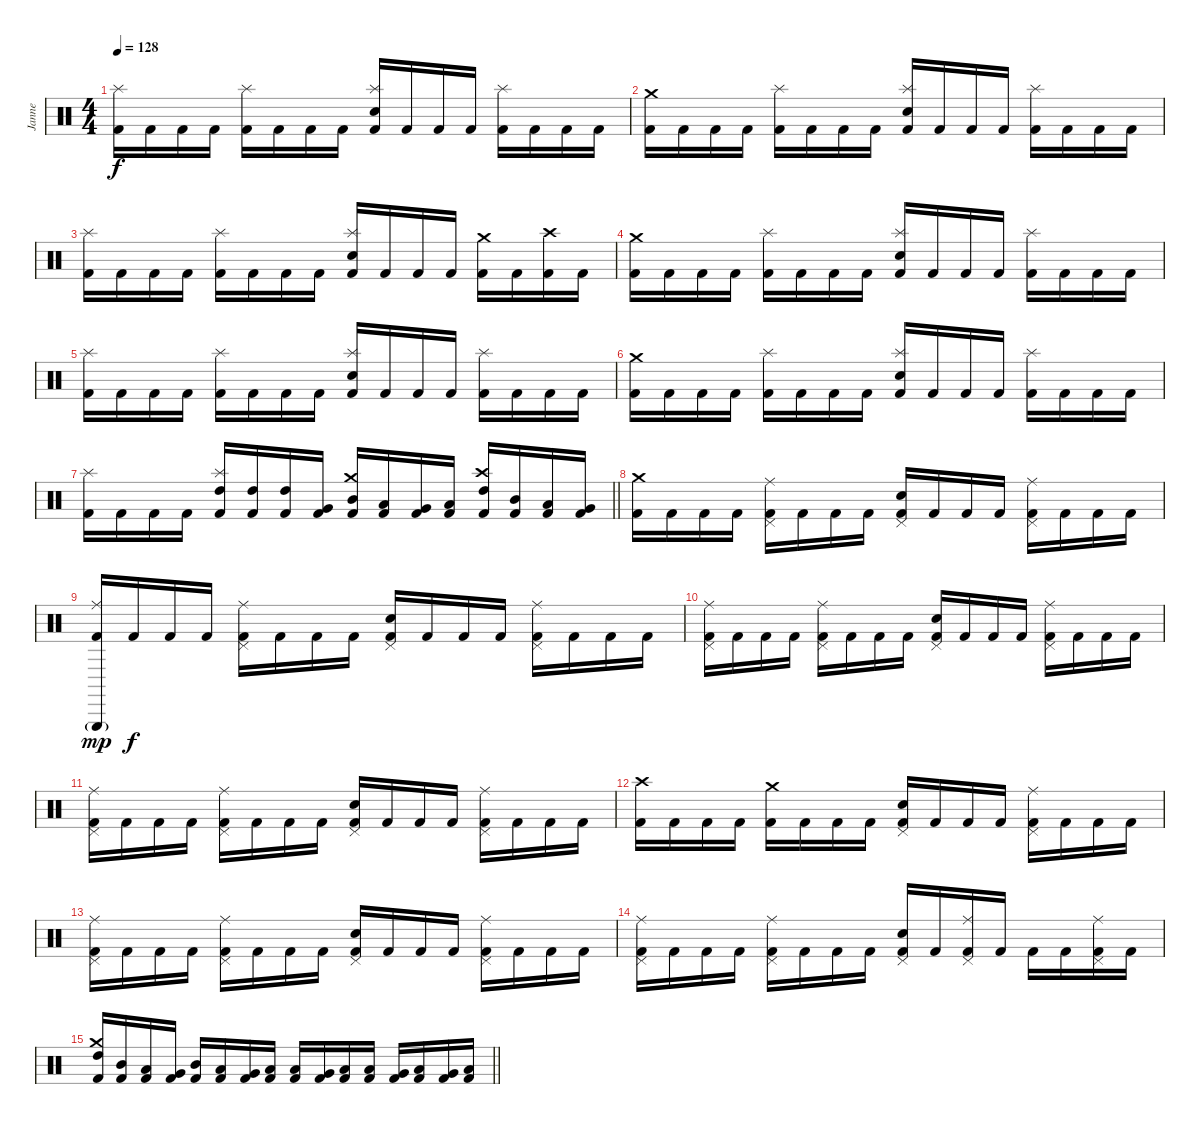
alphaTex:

\track ("Janne" "Janne") {instrument percussion}
\staff {score}
\articulation defaults
\ts (4 4)
\tempo 128
\clef neutral
\ks c
("Kick (hit) 2" "Splash (hit)").16{dy f} "Kick (hit) 2".16 "Kick (hit) 2".16 "Kick (hit) 2".16 ("Kick (hit) 2" "Splash (hit)").16 "Kick (hit) 2".16 "Kick (hit) 2".16 "Kick (hit) 2".16 ("Kick (hit) 2" "Snare (hit) 2" "Splash (hit)").16 "Kick (hit) 2".16 "Kick (hit) 2".16 "Kick (hit) 2".16 ("Kick (hit) 2" "Splash (hit)").16 "Kick (hit) 2".16 "Kick (hit) 2".16 "Kick (hit) 2".16 |
("Kick (hit) 2" "Crash medium (hit)").16 "Kick (hit) 2".16 "Kick (hit) 2".16 "Kick (hit) 2".16 ("Kick (hit) 2" "Splash (hit)").16 "Kick (hit) 2".16 "Kick (hit) 2".16 "Kick (hit) 2".16 ("Kick (hit) 2" "Snare (hit) 2" "Splash (hit)").16 "Kick (hit) 2".16 "Kick (hit) 2".16 "Kick (hit) 2".16 ("Kick (hit) 2" "Splash (hit)").16 "Kick (hit) 2".16 "Kick (hit) 2".16 "Kick (hit) 2".16 |
("Kick (hit) 2" "Splash (hit)").16 "Kick (hit) 2".16 "Kick (hit) 2".16 "Kick (hit) 2".16 ("Kick (hit) 2" "Splash (hit)").16 "Kick (hit) 2".16 "Kick (hit) 2".16 "Kick (hit) 2".16 ("Kick (hit) 2" "Snare (hit) 2" "Splash (hit)").16 "Kick (hit) 2".16 "Kick (hit) 2".16 "Kick (hit) 2".16 ("Kick (hit) 2" "Crash medium (hit)").16 "Kick (hit) 2".16 ("Kick (hit) 2" "Crash high (hit)").16 "Kick (hit) 2".16 |
("Kick (hit) 2" "Crash medium (hit)").16 "Kick (hit) 2".16 "Kick (hit) 2".16 "Kick (hit) 2".16 ("Kick (hit) 2" "Splash (hit)").16 "Kick (hit) 2".16 "Kick (hit) 2".16 "Kick (hit) 2".16 ("Kick (hit) 2" "Snare (hit) 2" "Splash (hit)").16 "Kick (hit) 2".16 "Kick (hit) 2".16 "Kick (hit) 2".16 ("Kick (hit) 2" "Splash (hit)").16 "Kick (hit) 2".16 "Kick (hit) 2".16 "Kick (hit) 2".16 |
("Kick (hit) 2" "Splash (hit)").16 "Kick (hit) 2".16 "Kick (hit) 2".16 "Kick (hit) 2".16 ("Kick (hit) 2" "Splash (hit)").16 "Kick (hit) 2".16 "Kick (hit) 2".16 "Kick (hit) 2".16 ("Kick (hit) 2" "Snare (hit) 2" "Splash (hit)").16 "Kick (hit) 2".16 "Kick (hit) 2".16 "Kick (hit) 2".16 ("Kick (hit) 2" "Splash (hit)").16 "Kick (hit) 2".16 "Kick (hit) 2".16 "Kick (hit) 2".16 |
("Kick (hit) 2" "Crash medium (hit)").16 "Kick (hit) 2".16 "Kick (hit) 2".16 "Kick (hit) 2".16 ("Kick (hit) 2" "Splash (hit)").16 "Kick (hit) 2".16 "Kick (hit) 2".16 "Kick (hit) 2".16 ("Kick (hit) 2" "Snare (hit) 2" "Splash (hit)").16 "Kick (hit) 2".16 "Kick (hit) 2".16 "Kick (hit) 2".16 ("Kick (hit) 2" "Splash (hit)").16 "Kick (hit) 2".16 "Kick (hit) 2".16 "Kick (hit) 2".16 |
\barLineRight lightlight
("Kick (hit) 2" "Splash (hit)").16 "Kick (hit) 2".16 "Kick (hit) 2".16 "Kick (hit) 2".16 ("Kick (hit) 2" "High Tom (hit)" "Splash (hit)").16 ("Kick (hit) 2" "High Tom (hit)").16 ("Kick (hit) 2" "High Tom (hit)").16 ("Kick (hit) 2" "Very Low Tom (hit)").16 ("Kick (hit) 2" "Mid Tom (hit)" "Crash medium (hit)").16 ("Kick (hit) 2" "Low Tom (hit)").16 ("Kick (hit) 2" "Very Low Tom (hit)").16 ("Kick (hit) 2" "Low Tom (hit)").16 ("Kick (hit) 2" "High Tom (hit)" "Crash high (hit)").16 ("Kick (hit) 2" "Mid Tom (hit)").16 ("Kick (hit) 2" "Low Tom (hit)").16 ("Kick (hit) 2" "Very Low Tom (hit)").16 |
("Kick (hit) 2" "Crash medium (hit)").16 "Kick (hit) 2".16 "Kick (hit) 2".16 "Kick (hit) 2".16 ("Kick (hit) 2" "Pedal Hi-Hat (hit)" "Ride (middle)").16 "Kick (hit) 2".16 "Kick (hit) 2".16 "Kick (hit) 2".16 ("Kick (hit) 2" "Snare (hit) 2" "Pedal Hi-Hat (hit)").16 "Kick (hit) 2".16 "Kick (hit) 2".16 "Kick (hit) 2".16 ("Kick (hit) 2" "Pedal Hi-Hat (hit)" "Ride (middle)").16 "Kick (hit) 2".16 "Kick (hit) 2".16 "Kick (hit) 2".16 |
("Kick (hit) 2" "Ride (middle)" "Triangle (hit)"{g}).16{dy mp} "Kick (hit) 2".16{dy f} "Kick (hit) 2".16 "Kick (hit) 2".16 ("Kick (hit) 2" "Pedal Hi-Hat (hit)" "Ride (middle)").16 "Kick (hit) 2".16 "Kick (hit) 2".16 "Kick (hit) 2".16 ("Kick (hit) 2" "Snare (hit) 2" "Pedal Hi-Hat (hit)").16 "Kick (hit) 2".16 "Kick (hit) 2".16 "Kick (hit) 2".16 ("Kick (hit) 2" "Pedal Hi-Hat (hit)" "Ride (middle)").16 "Kick (hit) 2".16 "Kick (hit) 2".16 "Kick (hit) 2".16 |
("Kick (hit) 2" "Pedal Hi-Hat (hit)" "Ride (middle)").16 "Kick (hit) 2".16 "Kick (hit) 2".16 "Kick (hit) 2".16 ("Kick (hit) 2" "Pedal Hi-Hat (hit)" "Ride (middle)").16 "Kick (hit) 2".16 "Kick (hit) 2".16 "Kick (hit) 2".16 ("Kick (hit) 2" "Snare (hit) 2" "Pedal Hi-Hat (hit)").16 "Kick (hit) 2".16 "Kick (hit) 2".16 "Kick (hit) 2".16 ("Kick (hit) 2" "Pedal Hi-Hat (hit)" "Ride (middle)").16 "Kick (hit) 2".16 "Kick (hit) 2".16 "Kick (hit) 2".16 |
("Kick (hit) 2" "Pedal Hi-Hat (hit)" "Ride (middle)").16 "Kick (hit) 2".16 "Kick (hit) 2".16 "Kick (hit) 2".16 ("Kick (hit) 2" "Pedal Hi-Hat (hit)" "Ride (middle)").16 "Kick (hit) 2".16 "Kick (hit) 2".16 "Kick (hit) 2".16 ("Kick (hit) 2" "Snare (hit) 2" "Pedal Hi-Hat (hit)").16 "Kick (hit) 2".16 "Kick (hit) 2".16 "Kick (hit) 2".16 ("Kick (hit) 2" "Pedal Hi-Hat (hit)" "Ride (middle)").16 "Kick (hit) 2".16 "Kick (hit) 2".16 "Kick (hit) 2".16 |
("Kick (hit) 2" "Crash high (hit)").16 "Kick (hit) 2".16 "Kick (hit) 2".16 "Kick (hit) 2".16 ("Kick (hit) 2" "Crash medium (hit)").16 "Kick (hit) 2".16 "Kick (hit) 2".16 "Kick (hit) 2".16 ("Kick (hit) 2" "Snare (hit) 2" "Pedal Hi-Hat (hit)").16 "Kick (hit) 2".16 "Kick (hit) 2".16 "Kick (hit) 2".16 ("Kick (hit) 2" "Pedal Hi-Hat (hit)" "Ride (middle)").16 "Kick (hit) 2".16 "Kick (hit) 2".16 "Kick (hit) 2".16 |
("Kick (hit) 2" "Pedal Hi-Hat (hit)" "Ride (middle)").16 "Kick (hit) 2".16 "Kick (hit) 2".16 "Kick (hit) 2".16 ("Kick (hit) 2" "Pedal Hi-Hat (hit)" "Ride (middle)").16 "Kick (hit) 2".16 "Kick (hit) 2".16 "Kick (hit) 2".16 ("Kick (hit) 2" "Snare (hit) 2" "Pedal Hi-Hat (hit)").16 "Kick (hit) 2".16 "Kick (hit) 2".16 "Kick (hit) 2".16 ("Kick (hit) 2" "Pedal Hi-Hat (hit)" "Ride (middle)").16 "Kick (hit) 2".16 "Kick (hit) 2".16 "Kick (hit) 2".16 |
("Kick (hit) 2" "Pedal Hi-Hat (hit)" "Ride (middle)").16 "Kick (hit) 2".16 "Kick (hit) 2".16 "Kick (hit) 2".16 ("Kick (hit) 2" "Pedal Hi-Hat (hit)" "Ride (middle)").16 "Kick (hit) 2".16 "Kick (hit) 2".16 "Kick (hit) 2".16 ("Kick (hit) 2" "Snare (hit) 2" "Pedal Hi-Hat (hit)").16 "Kick (hit) 2".16 ("Kick (hit) 2" "Pedal Hi-Hat (hit)" "Ride (middle)").16 "Kick (hit) 2".16 "Kick (hit) 2".16 "Kick (hit) 2".16 ("Kick (hit) 2" "Pedal Hi-Hat (hit)" "Ride (middle)").16 "Kick (hit) 2".16 |
\barLineRight lightlight
("Kick (hit) 2" "High Tom (hit)" "Crash medium (hit)").16 ("Kick (hit) 2" "Mid Tom (hit)").16 ("Kick (hit) 2" "Low Tom (hit)").16 ("Kick (hit) 2" "Very Low Tom (hit)").16 ("Kick (hit) 2" "Mid Tom (hit)").16 ("Kick (hit) 2" "Low Tom (hit)").16 ("Kick (hit) 2" "Very Low Tom (hit)").16 ("Kick (hit) 2" "Low Floor Tom (hit)").16 ("Kick (hit) 2" "Low Tom (hit)").16 ("Kick (hit) 2" "Very Low Tom (hit)").16 ("Kick (hit) 2" "Low Floor Tom (hit)").16 ("Kick (hit) 2" "Low Floor Tom (hit)").16 ("Kick (hit) 2" "Very Low Tom (hit)").16 ("Kick (hit) 2" "Low Floor Tom (hit)").16 ("Kick (hit) 2" "Very Low Tom (hit)").16 ("Kick (hit) 2" "Low Floor Tom (hit)").16
